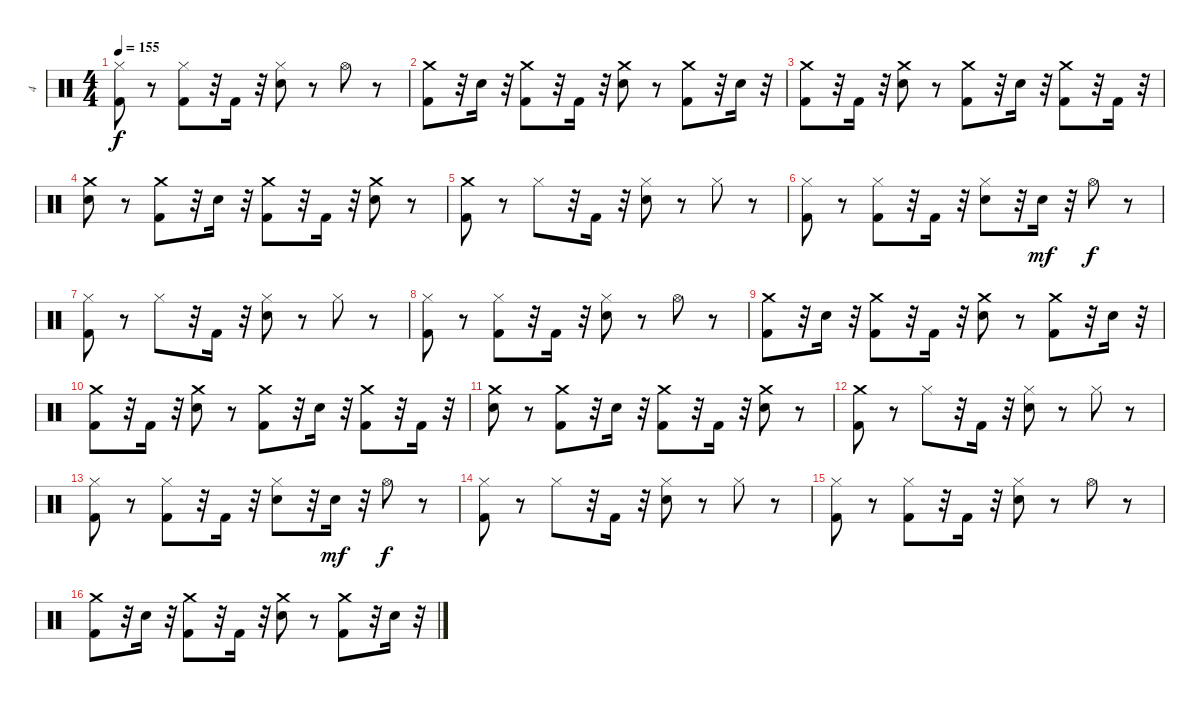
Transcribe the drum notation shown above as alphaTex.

\track ("4" "4") {instrument percussion}
\staff {score}
\articulation defaults
\ts (4 4)
\tempo 155
\clef neutral
\ks c
("Hi-Hat (closed)" "Kick (hit) 2").8{dy f} r.8 ("Hi-Hat (closed)" "Kick (hit) 2").8 r.32 "Kick (hit) 2".16 r.32 ("Hi-Hat (closed)" "Electric Snare (hit)").8 r.8 "Hi-Hat (open)".8 r.8 |
("Crash medium (hit)" "Kick (hit) 2").8 r.32 "Electric Snare (hit)".16 r.32 ("Crash medium (hit)" "Kick (hit) 2").8 r.32 "Kick (hit) 2".16 r.32 ("Crash medium (hit)" "Electric Snare (hit)").8 r.8 ("Crash medium (hit)" "Kick (hit) 2").8 r.32 "Electric Snare (hit)".16 r.32 |
("Crash medium (hit)" "Kick (hit) 2").8 r.32 "Kick (hit) 2".16 r.32 ("Crash medium (hit)" "Electric Snare (hit)").8 r.8 ("Crash medium (hit)" "Kick (hit) 2").8 r.32 "Electric Snare (hit)".16 r.32 ("Crash medium (hit)" "Kick (hit) 2").8 r.32 "Kick (hit) 2".16 r.32 |
("Crash medium (hit)" "Electric Snare (hit)").8 r.8 ("Crash medium (hit)" "Kick (hit) 2").8 r.32 "Electric Snare (hit)".16 r.32 ("Crash medium (hit)" "Kick (hit) 2").8 r.32 "Kick (hit) 2".16 r.32 ("Crash medium (hit)" "Electric Snare (hit)").8 r.8 |
("Crash medium (hit)" "Kick (hit) 2").8 r.8 "Hi-Hat (closed)".8 r.32 "Kick (hit) 2".16 r.32 ("Hi-Hat (closed)" "Electric Snare (hit)").8 r.8 "Hi-Hat (closed)".8 r.8 |
("Hi-Hat (closed)" "Kick (hit) 2").8 r.8 ("Hi-Hat (closed)" "Kick (hit) 2").8 r.32 "Kick (hit) 2".16 r.32 ("Hi-Hat (closed)" "Electric Snare (hit)").8 r.32 "Electric Snare (hit)".16{dy mf} r.32 "Hi-Hat (open)".8{dy f} r.8 |
("Hi-Hat (closed)" "Kick (hit) 2").8 r.8 "Hi-Hat (closed)".8 r.32 "Kick (hit) 2".16 r.32 ("Hi-Hat (closed)" "Electric Snare (hit)").8 r.8 "Hi-Hat (closed)".8 r.8 |
("Hi-Hat (closed)" "Kick (hit) 2").8 r.8 ("Hi-Hat (closed)" "Kick (hit) 2").8 r.32 "Kick (hit) 2".16 r.32 ("Hi-Hat (closed)" "Electric Snare (hit)").8 r.8 "Hi-Hat (open)".8 r.8 |
("Crash medium (hit)" "Kick (hit) 2").8 r.32 "Electric Snare (hit)".16 r.32 ("Crash medium (hit)" "Kick (hit) 2").8 r.32 "Kick (hit) 2".16 r.32 ("Crash medium (hit)" "Electric Snare (hit)").8 r.8 ("Crash medium (hit)" "Kick (hit) 2").8 r.32 "Electric Snare (hit)".16 r.32 |
("Crash medium (hit)" "Kick (hit) 2").8 r.32 "Kick (hit) 2".16 r.32 ("Crash medium (hit)" "Electric Snare (hit)").8 r.8 ("Crash medium (hit)" "Kick (hit) 2").8 r.32 "Electric Snare (hit)".16 r.32 ("Crash medium (hit)" "Kick (hit) 2").8 r.32 "Kick (hit) 2".16 r.32 |
("Crash medium (hit)" "Electric Snare (hit)").8 r.8 ("Crash medium (hit)" "Kick (hit) 2").8 r.32 "Electric Snare (hit)".16 r.32 ("Crash medium (hit)" "Kick (hit) 2").8 r.32 "Kick (hit) 2".16 r.32 ("Crash medium (hit)" "Electric Snare (hit)").8 r.8 |
("Crash medium (hit)" "Kick (hit) 2").8 r.8 "Hi-Hat (closed)".8 r.32 "Kick (hit) 2".16 r.32 ("Hi-Hat (closed)" "Electric Snare (hit)").8 r.8 "Hi-Hat (closed)".8 r.8 |
("Hi-Hat (closed)" "Kick (hit) 2").8 r.8 ("Hi-Hat (closed)" "Kick (hit) 2").8 r.32 "Kick (hit) 2".16 r.32 ("Hi-Hat (closed)" "Electric Snare (hit)").8 r.32 "Electric Snare (hit)".16{dy mf} r.32 "Hi-Hat (open)".8{dy f} r.8 |
("Hi-Hat (closed)" "Kick (hit) 2").8 r.8 "Hi-Hat (closed)".8 r.32 "Kick (hit) 2".16 r.32 ("Hi-Hat (closed)" "Electric Snare (hit)").8 r.8 "Hi-Hat (closed)".8 r.8 |
("Hi-Hat (closed)" "Kick (hit) 2").8 r.8 ("Hi-Hat (closed)" "Kick (hit) 2").8 r.32 "Kick (hit) 2".16 r.32 ("Hi-Hat (closed)" "Electric Snare (hit)").8 r.8 "Hi-Hat (open)".8 r.8 |
("Crash medium (hit)" "Kick (hit) 2").8 r.32 "Electric Snare (hit)".16 r.32 ("Crash medium (hit)" "Kick (hit) 2").8 r.32 "Kick (hit) 2".16 r.32 ("Crash medium (hit)" "Electric Snare (hit)").8 r.8 ("Crash medium (hit)" "Kick (hit) 2").8 r.32 "Electric Snare (hit)".16 r.32
